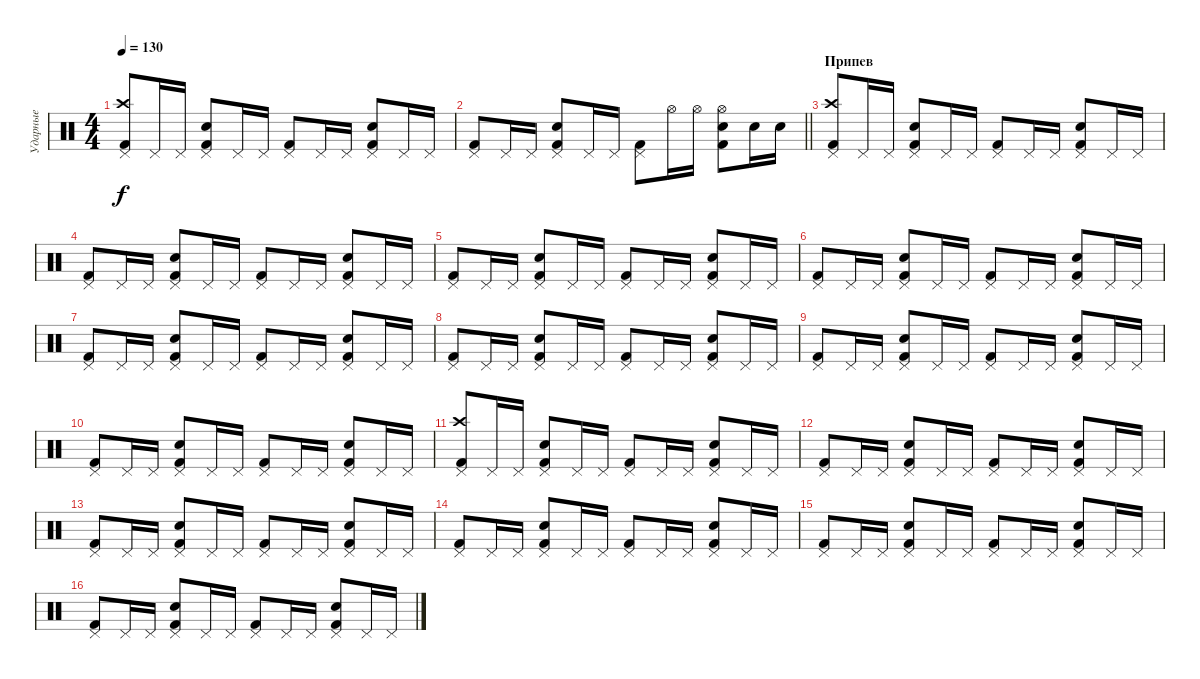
\track ("Ударные" "Ударные") {instrument percussion}
\staff {score}
\articulation defaults
\ts (4 4)
\tempo 130
\clef neutral
\ks c
("Pedal Hi-Hat (hit)" "Crash high (hit)" "Kick (hit) 2").8{dy f} "Pedal Hi-Hat (hit)".16 "Pedal Hi-Hat (hit)".16 ("Pedal Hi-Hat (hit)" "Electric Snare (hit)" "Kick (hit) 2").8 "Pedal Hi-Hat (hit)".16 "Pedal Hi-Hat (hit)".16 ("Pedal Hi-Hat (hit)" "Kick (hit) 2").8 "Pedal Hi-Hat (hit)".16 "Pedal Hi-Hat (hit)".16 ("Pedal Hi-Hat (hit)" "Electric Snare (hit)" "Kick (hit) 2").8 "Pedal Hi-Hat (hit)".16 "Pedal Hi-Hat (hit)".16 |
\barLineRight lightlight
("Pedal Hi-Hat (hit)" "Kick (hit) 2").8 "Pedal Hi-Hat (hit)".16 "Pedal Hi-Hat (hit)".16 ("Pedal Hi-Hat (hit)" "Electric Snare (hit)" "Kick (hit) 2").8 "Pedal Hi-Hat (hit)".16 "Pedal Hi-Hat (hit)".16 ("Pedal Hi-Hat (hit)" "Kick (hit) 2").8 "Hi-Hat (open)".16 "Hi-Hat (open)".16 ("Hi-Hat (open)" "Electric Snare (hit)" "Kick (hit) 2").8 "Electric Snare (hit)".16 "Electric Snare (hit)".16 |
\section ("" "Припев")
("Pedal Hi-Hat (hit)" "Crash high (hit)" "Kick (hit) 2").8 "Pedal Hi-Hat (hit)".16 "Pedal Hi-Hat (hit)".16 ("Pedal Hi-Hat (hit)" "Electric Snare (hit)" "Kick (hit) 2").8 "Pedal Hi-Hat (hit)".16 "Pedal Hi-Hat (hit)".16 ("Pedal Hi-Hat (hit)" "Kick (hit) 2").8 "Pedal Hi-Hat (hit)".16 "Pedal Hi-Hat (hit)".16 ("Pedal Hi-Hat (hit)" "Electric Snare (hit)" "Kick (hit) 2").8 "Pedal Hi-Hat (hit)".16 "Pedal Hi-Hat (hit)".16 |
("Pedal Hi-Hat (hit)" "Kick (hit) 2").8 "Pedal Hi-Hat (hit)".16 "Pedal Hi-Hat (hit)".16 ("Pedal Hi-Hat (hit)" "Electric Snare (hit)" "Kick (hit) 2").8 "Pedal Hi-Hat (hit)".16 "Pedal Hi-Hat (hit)".16 ("Pedal Hi-Hat (hit)" "Kick (hit) 2").8 "Pedal Hi-Hat (hit)".16 "Pedal Hi-Hat (hit)".16 ("Pedal Hi-Hat (hit)" "Electric Snare (hit)" "Kick (hit) 2").8 "Pedal Hi-Hat (hit)".16 "Pedal Hi-Hat (hit)".16 |
("Pedal Hi-Hat (hit)" "Kick (hit) 2").8 "Pedal Hi-Hat (hit)".16 "Pedal Hi-Hat (hit)".16 ("Pedal Hi-Hat (hit)" "Electric Snare (hit)" "Kick (hit) 2").8 "Pedal Hi-Hat (hit)".16 "Pedal Hi-Hat (hit)".16 ("Pedal Hi-Hat (hit)" "Kick (hit) 2").8 "Pedal Hi-Hat (hit)".16 "Pedal Hi-Hat (hit)".16 ("Pedal Hi-Hat (hit)" "Electric Snare (hit)" "Kick (hit) 2").8 "Pedal Hi-Hat (hit)".16 "Pedal Hi-Hat (hit)".16 |
("Pedal Hi-Hat (hit)" "Kick (hit) 2").8 "Pedal Hi-Hat (hit)".16 "Pedal Hi-Hat (hit)".16 ("Pedal Hi-Hat (hit)" "Electric Snare (hit)" "Kick (hit) 2").8 "Pedal Hi-Hat (hit)".16 "Pedal Hi-Hat (hit)".16 ("Pedal Hi-Hat (hit)" "Kick (hit) 2").8 "Pedal Hi-Hat (hit)".16 "Pedal Hi-Hat (hit)".16 ("Pedal Hi-Hat (hit)" "Electric Snare (hit)" "Kick (hit) 2").8 "Pedal Hi-Hat (hit)".16 "Pedal Hi-Hat (hit)".16 |
("Pedal Hi-Hat (hit)" "Kick (hit) 2").8 "Pedal Hi-Hat (hit)".16 "Pedal Hi-Hat (hit)".16 ("Pedal Hi-Hat (hit)" "Electric Snare (hit)" "Kick (hit) 2").8 "Pedal Hi-Hat (hit)".16 "Pedal Hi-Hat (hit)".16 ("Pedal Hi-Hat (hit)" "Kick (hit) 2").8 "Pedal Hi-Hat (hit)".16 "Pedal Hi-Hat (hit)".16 ("Pedal Hi-Hat (hit)" "Electric Snare (hit)" "Kick (hit) 2").8 "Pedal Hi-Hat (hit)".16 "Pedal Hi-Hat (hit)".16 |
("Pedal Hi-Hat (hit)" "Kick (hit) 2").8 "Pedal Hi-Hat (hit)".16 "Pedal Hi-Hat (hit)".16 ("Pedal Hi-Hat (hit)" "Electric Snare (hit)" "Kick (hit) 2").8 "Pedal Hi-Hat (hit)".16 "Pedal Hi-Hat (hit)".16 ("Pedal Hi-Hat (hit)" "Kick (hit) 2").8 "Pedal Hi-Hat (hit)".16 "Pedal Hi-Hat (hit)".16 ("Pedal Hi-Hat (hit)" "Electric Snare (hit)" "Kick (hit) 2").8 "Pedal Hi-Hat (hit)".16 "Pedal Hi-Hat (hit)".16 |
("Pedal Hi-Hat (hit)" "Kick (hit) 2").8 "Pedal Hi-Hat (hit)".16 "Pedal Hi-Hat (hit)".16 ("Pedal Hi-Hat (hit)" "Electric Snare (hit)" "Kick (hit) 2").8 "Pedal Hi-Hat (hit)".16 "Pedal Hi-Hat (hit)".16 ("Pedal Hi-Hat (hit)" "Kick (hit) 2").8 "Pedal Hi-Hat (hit)".16 "Pedal Hi-Hat (hit)".16 ("Pedal Hi-Hat (hit)" "Electric Snare (hit)" "Kick (hit) 2").8 "Pedal Hi-Hat (hit)".16 "Pedal Hi-Hat (hit)".16 |
("Pedal Hi-Hat (hit)" "Kick (hit) 2").8 "Pedal Hi-Hat (hit)".16 "Pedal Hi-Hat (hit)".16 ("Pedal Hi-Hat (hit)" "Electric Snare (hit)" "Kick (hit) 2").8 "Pedal Hi-Hat (hit)".16 "Pedal Hi-Hat (hit)".16 ("Pedal Hi-Hat (hit)" "Kick (hit) 2").8 "Pedal Hi-Hat (hit)".16 "Pedal Hi-Hat (hit)".16 ("Pedal Hi-Hat (hit)" "Electric Snare (hit)" "Kick (hit) 2").8 "Pedal Hi-Hat (hit)".16 "Pedal Hi-Hat (hit)".16 |
("Pedal Hi-Hat (hit)" "Crash high (hit)" "Kick (hit) 2").8 "Pedal Hi-Hat (hit)".16 "Pedal Hi-Hat (hit)".16 ("Pedal Hi-Hat (hit)" "Electric Snare (hit)" "Kick (hit) 2").8 "Pedal Hi-Hat (hit)".16 "Pedal Hi-Hat (hit)".16 ("Pedal Hi-Hat (hit)" "Kick (hit) 2").8 "Pedal Hi-Hat (hit)".16 "Pedal Hi-Hat (hit)".16 ("Pedal Hi-Hat (hit)" "Electric Snare (hit)" "Kick (hit) 2").8 "Pedal Hi-Hat (hit)".16 "Pedal Hi-Hat (hit)".16 |
("Pedal Hi-Hat (hit)" "Kick (hit) 2").8 "Pedal Hi-Hat (hit)".16 "Pedal Hi-Hat (hit)".16 ("Pedal Hi-Hat (hit)" "Electric Snare (hit)" "Kick (hit) 2").8 "Pedal Hi-Hat (hit)".16 "Pedal Hi-Hat (hit)".16 ("Pedal Hi-Hat (hit)" "Kick (hit) 2").8 "Pedal Hi-Hat (hit)".16 "Pedal Hi-Hat (hit)".16 ("Pedal Hi-Hat (hit)" "Electric Snare (hit)" "Kick (hit) 2").8 "Pedal Hi-Hat (hit)".16 "Pedal Hi-Hat (hit)".16 |
("Pedal Hi-Hat (hit)" "Kick (hit) 2").8 "Pedal Hi-Hat (hit)".16 "Pedal Hi-Hat (hit)".16 ("Pedal Hi-Hat (hit)" "Electric Snare (hit)" "Kick (hit) 2").8 "Pedal Hi-Hat (hit)".16 "Pedal Hi-Hat (hit)".16 ("Pedal Hi-Hat (hit)" "Kick (hit) 2").8 "Pedal Hi-Hat (hit)".16 "Pedal Hi-Hat (hit)".16 ("Pedal Hi-Hat (hit)" "Electric Snare (hit)" "Kick (hit) 2").8 "Pedal Hi-Hat (hit)".16 "Pedal Hi-Hat (hit)".16 |
("Pedal Hi-Hat (hit)" "Kick (hit) 2").8 "Pedal Hi-Hat (hit)".16 "Pedal Hi-Hat (hit)".16 ("Pedal Hi-Hat (hit)" "Electric Snare (hit)" "Kick (hit) 2").8 "Pedal Hi-Hat (hit)".16 "Pedal Hi-Hat (hit)".16 ("Pedal Hi-Hat (hit)" "Kick (hit) 2").8 "Pedal Hi-Hat (hit)".16 "Pedal Hi-Hat (hit)".16 ("Pedal Hi-Hat (hit)" "Electric Snare (hit)" "Kick (hit) 2").8 "Pedal Hi-Hat (hit)".16 "Pedal Hi-Hat (hit)".16 |
("Pedal Hi-Hat (hit)" "Kick (hit) 2").8 "Pedal Hi-Hat (hit)".16 "Pedal Hi-Hat (hit)".16 ("Pedal Hi-Hat (hit)" "Electric Snare (hit)" "Kick (hit) 2").8 "Pedal Hi-Hat (hit)".16 "Pedal Hi-Hat (hit)".16 ("Pedal Hi-Hat (hit)" "Kick (hit) 2").8 "Pedal Hi-Hat (hit)".16 "Pedal Hi-Hat (hit)".16 ("Pedal Hi-Hat (hit)" "Electric Snare (hit)" "Kick (hit) 2").8 "Pedal Hi-Hat (hit)".16 "Pedal Hi-Hat (hit)".16 |
("Pedal Hi-Hat (hit)" "Kick (hit) 2").8 "Pedal Hi-Hat (hit)".16 "Pedal Hi-Hat (hit)".16 ("Pedal Hi-Hat (hit)" "Electric Snare (hit)" "Kick (hit) 2").8 "Pedal Hi-Hat (hit)".16 "Pedal Hi-Hat (hit)".16 ("Pedal Hi-Hat (hit)" "Kick (hit) 2").8 "Pedal Hi-Hat (hit)".16 "Pedal Hi-Hat (hit)".16 ("Pedal Hi-Hat (hit)" "Electric Snare (hit)" "Kick (hit) 2").8 "Pedal Hi-Hat (hit)".16 "Pedal Hi-Hat (hit)".16
